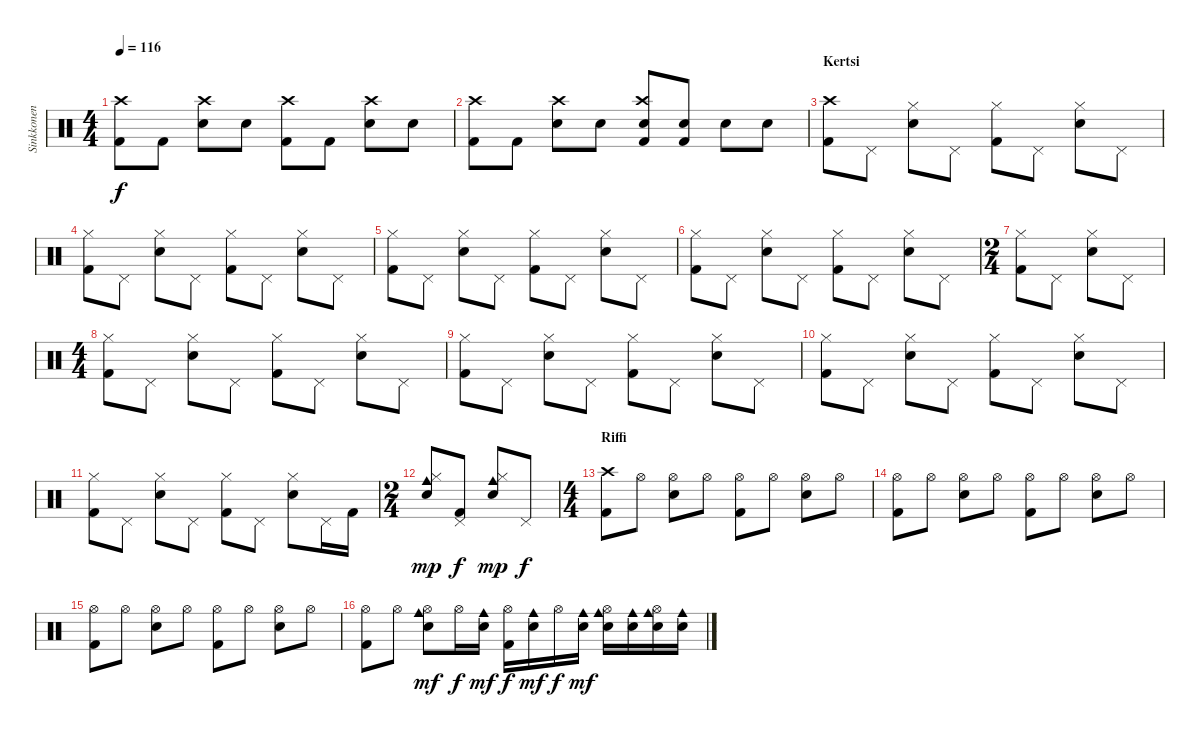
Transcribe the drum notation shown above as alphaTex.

\track ("Sinkkonen" "Sinkkonen") {instrument percussion}
\staff {score}
\articulation defaults
\ts (4 4)
\tempo 116
\clef neutral
\ks c
("Kick (hit) 2" "Crash high (hit)").8{dy f} "Kick (hit) 2".8 ("Crash high (hit)" "Snare (hit) 2").8 "Snare (hit) 2".8 ("Kick (hit) 2" "Crash high (hit)").8 "Kick (hit) 2".8 ("Crash high (hit)" "Snare (hit) 2").8 "Snare (hit) 2".8 |
("Kick (hit) 2" "Crash high (hit)").8 "Kick (hit) 2".8 ("Crash high (hit)" "Snare (hit) 2").8 "Snare (hit) 2".8 ("Kick (hit) 2" "Crash high (hit)" "Snare (hit) 2").8 ("Kick (hit) 2" "Snare (hit) 2").8 "Snare (hit) 2".8 "Snare (hit) 2".8 |
\section ("" "Kertsi")
("Kick (hit) 2" "Crash high (hit)").8 "Pedal Hi-Hat (hit)".8 ("Hi-Hat (closed)" "Snare (hit) 2").8 "Pedal Hi-Hat (hit)".8 ("Kick (hit) 2" "Hi-Hat (closed)").8 "Pedal Hi-Hat (hit)".8 ("Hi-Hat (closed)" "Snare (hit) 2").8 "Pedal Hi-Hat (hit)".8 |
("Kick (hit) 2" "Hi-Hat (closed)").8 "Pedal Hi-Hat (hit)".8 ("Hi-Hat (closed)" "Snare (hit) 2").8 "Pedal Hi-Hat (hit)".8 ("Kick (hit) 2" "Hi-Hat (closed)").8 "Pedal Hi-Hat (hit)".8 ("Hi-Hat (closed)" "Snare (hit) 2").8 "Pedal Hi-Hat (hit)".8 |
("Kick (hit) 2" "Hi-Hat (closed)").8 "Pedal Hi-Hat (hit)".8 ("Hi-Hat (closed)" "Snare (hit) 2").8 "Pedal Hi-Hat (hit)".8 ("Kick (hit) 2" "Hi-Hat (closed)").8 "Pedal Hi-Hat (hit)".8 ("Hi-Hat (closed)" "Snare (hit) 2").8 "Pedal Hi-Hat (hit)".8 |
("Kick (hit) 2" "Hi-Hat (closed)").8 "Pedal Hi-Hat (hit)".8 ("Hi-Hat (closed)" "Snare (hit) 2").8 "Pedal Hi-Hat (hit)".8 ("Kick (hit) 2" "Hi-Hat (closed)").8 "Pedal Hi-Hat (hit)".8 ("Hi-Hat (closed)" "Snare (hit) 2").8 "Pedal Hi-Hat (hit)".8 |
\ts (2 4)
("Kick (hit) 2" "Hi-Hat (closed)").8 "Pedal Hi-Hat (hit)".8 ("Hi-Hat (closed)" "Snare (hit) 2").8 "Pedal Hi-Hat (hit)".8 |
\ts (4 4)
("Kick (hit) 2" "Hi-Hat (closed)").8 "Pedal Hi-Hat (hit)".8 ("Hi-Hat (closed)" "Snare (hit) 2").8 "Pedal Hi-Hat (hit)".8 ("Kick (hit) 2" "Hi-Hat (closed)").8 "Pedal Hi-Hat (hit)".8 ("Hi-Hat (closed)" "Snare (hit) 2").8 "Pedal Hi-Hat (hit)".8 |
("Kick (hit) 2" "Hi-Hat (closed)").8 "Pedal Hi-Hat (hit)".8 ("Hi-Hat (closed)" "Snare (hit) 2").8 "Pedal Hi-Hat (hit)".8 ("Kick (hit) 2" "Hi-Hat (closed)").8 "Pedal Hi-Hat (hit)".8 ("Hi-Hat (closed)" "Snare (hit) 2").8 "Pedal Hi-Hat (hit)".8 |
("Kick (hit) 2" "Hi-Hat (closed)").8 "Pedal Hi-Hat (hit)".8 ("Hi-Hat (closed)" "Snare (hit) 2").8 "Pedal Hi-Hat (hit)".8 ("Kick (hit) 2" "Hi-Hat (closed)").8 "Pedal Hi-Hat (hit)".8 ("Hi-Hat (closed)" "Snare (hit) 2").8 "Pedal Hi-Hat (hit)".8 |
("Kick (hit) 2" "Hi-Hat (closed)").8 "Pedal Hi-Hat (hit)".8 ("Hi-Hat (closed)" "Snare (hit) 2").8 "Pedal Hi-Hat (hit)".8 ("Kick (hit) 2" "Hi-Hat (closed)").8 "Pedal Hi-Hat (hit)".8 ("Hi-Hat (closed)" "Snare (hit) 2").8 "Pedal Hi-Hat (hit)".16 "Kick (hit) 2".16 |
\ts (2 4)
("Hi-Hat (closed)" "Snare (hit) 2" "Cowbell medium (hit)").8{dy mp} ("Kick (hit) 2" "Pedal Hi-Hat (hit)").8{dy f} ("Hi-Hat (closed)" "Snare (hit) 2" "Cowbell medium (hit)").8{dy mp} "Pedal Hi-Hat (hit)".8{dy f} |
\ts (4 4)
\section ("" "Riffi")
("Kick (hit) 2" "Crash high (hit)").8 "Hi-Hat (open)".8 ("Hi-Hat (open)" "Snare (hit) 2").8 "Hi-Hat (open)".8 ("Kick (hit) 2" "Hi-Hat (open)").8 "Hi-Hat (open)".8 ("Hi-Hat (open)" "Snare (hit) 2").8 "Hi-Hat (open)".8 |
("Kick (hit) 2" "Hi-Hat (open)").8 "Hi-Hat (open)".8 ("Hi-Hat (open)" "Snare (hit) 2").8 "Hi-Hat (open)".8 ("Kick (hit) 2" "Hi-Hat (open)").8 "Hi-Hat (open)".8 ("Hi-Hat (open)" "Snare (hit) 2").8 "Hi-Hat (open)".8 |
("Kick (hit) 2" "Hi-Hat (open)").8 "Hi-Hat (open)".8 ("Hi-Hat (open)" "Snare (hit) 2").8 "Hi-Hat (open)".8 ("Kick (hit) 2" "Hi-Hat (open)").8 "Hi-Hat (open)".8 ("Hi-Hat (open)" "Snare (hit) 2").8 "Hi-Hat (open)".8 |
("Kick (hit) 2" "Hi-Hat (open)").8 "Hi-Hat (open)".8 ("Hi-Hat (open)" "Snare (hit) 2" "Cowbell medium (hit)").8{dy mf} "Hi-Hat (open)".16{dy f} ("Snare (hit) 2" "Cowbell medium (hit)").16{dy mf} ("Kick (hit) 2" "Hi-Hat (open)").16{dy f} ("Snare (hit) 2" "Cowbell medium (hit)").16{dy mf} "Hi-Hat (open)".16{dy f} ("Snare (hit) 2" "Cowbell medium (hit)").16{dy mf} ("Hi-Hat (open)" "Snare (hit) 2" "Cowbell medium (hit)").16 ("Snare (hit) 2" "Cowbell medium (hit)").16 ("Hi-Hat (open)" "Snare (hit) 2" "Cowbell medium (hit)").16 ("Snare (hit) 2" "Cowbell medium (hit)").16
